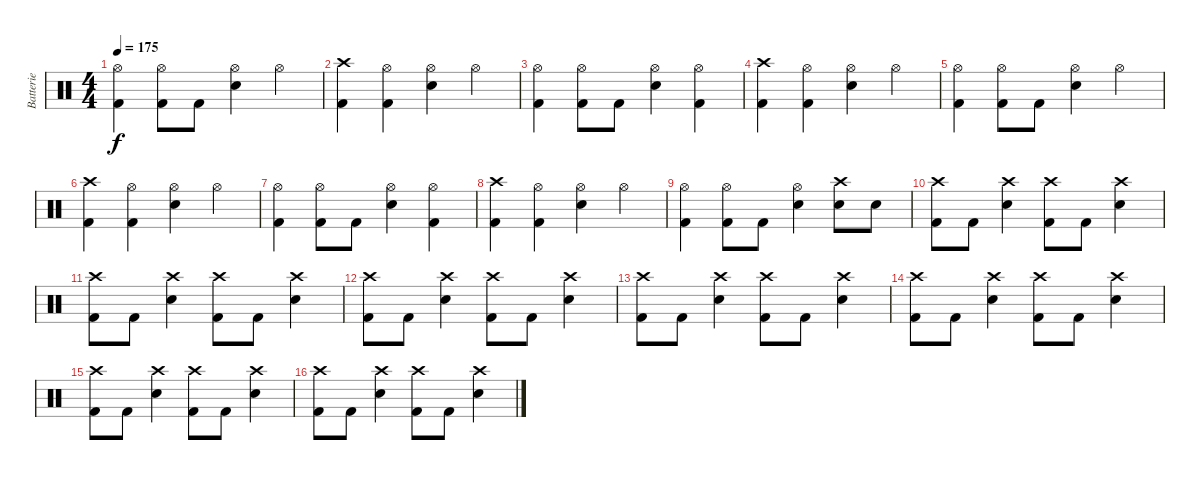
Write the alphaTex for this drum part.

\track ("Batterie" "Batterie") {instrument percussion}
\staff {score}
\articulation defaults
\ts (4 4)
\tempo 175
\clef neutral
\ks c
("Hi-Hat (open)" "Kick (hit) 2").4{dy f} ("Hi-Hat (open)" "Kick (hit) 2").8 "Kick (hit) 2".8 ("Hi-Hat (open)" "Electric Snare (hit)").4 "Hi-Hat (open)".4 |
("Crash high (hit)" "Kick (hit) 2").4 ("Hi-Hat (open)" "Kick (hit) 2").4 ("Hi-Hat (open)" "Electric Snare (hit)").4 "Hi-Hat (open)".4 |
("Hi-Hat (open)" "Kick (hit) 2").4 ("Hi-Hat (open)" "Kick (hit) 2").8 "Kick (hit) 2".8 ("Hi-Hat (open)" "Electric Snare (hit)").4 ("Hi-Hat (open)" "Kick (hit) 2").4 |
("Crash high (hit)" "Kick (hit) 2").4 ("Hi-Hat (open)" "Kick (hit) 2").4 ("Hi-Hat (open)" "Electric Snare (hit)").4 "Hi-Hat (open)".4 |
("Hi-Hat (open)" "Kick (hit) 2").4 ("Hi-Hat (open)" "Kick (hit) 2").8 "Kick (hit) 2".8 ("Hi-Hat (open)" "Electric Snare (hit)").4 "Hi-Hat (open)".4 |
("Crash high (hit)" "Kick (hit) 2").4 ("Hi-Hat (open)" "Kick (hit) 2").4 ("Hi-Hat (open)" "Electric Snare (hit)").4 "Hi-Hat (open)".4 |
("Hi-Hat (open)" "Kick (hit) 2").4 ("Hi-Hat (open)" "Kick (hit) 2").8 "Kick (hit) 2".8 ("Hi-Hat (open)" "Electric Snare (hit)").4 ("Hi-Hat (open)" "Kick (hit) 2").4 |
("Crash high (hit)" "Kick (hit) 2").4 ("Hi-Hat (open)" "Kick (hit) 2").4 ("Hi-Hat (open)" "Electric Snare (hit)").4 "Hi-Hat (open)".4 |
("Hi-Hat (open)" "Kick (hit) 2").4 ("Hi-Hat (open)" "Kick (hit) 2").8 "Kick (hit) 2".8 ("Hi-Hat (open)" "Electric Snare (hit)").4 ("Crash high (hit)" "Electric Snare (hit)").8 "Electric Snare (hit)".8 |
("Crash high (hit)" "Kick (hit) 2").8 "Kick (hit) 2".8 ("Crash high (hit)" "Electric Snare (hit)").4 ("Crash high (hit)" "Kick (hit) 2").8 "Kick (hit) 2".8 ("Crash high (hit)" "Electric Snare (hit)").4 |
("Crash high (hit)" "Kick (hit) 2").8 "Kick (hit) 2".8 ("Crash high (hit)" "Electric Snare (hit)").4 ("Crash high (hit)" "Kick (hit) 2").8 "Kick (hit) 2".8 ("Crash high (hit)" "Electric Snare (hit)").4 |
("Crash high (hit)" "Kick (hit) 2").8 "Kick (hit) 2".8 ("Crash high (hit)" "Electric Snare (hit)").4 ("Crash high (hit)" "Kick (hit) 2").8 "Kick (hit) 2".8 ("Crash high (hit)" "Electric Snare (hit)").4 |
("Crash high (hit)" "Kick (hit) 2").8 "Kick (hit) 2".8 ("Crash high (hit)" "Electric Snare (hit)").4 ("Crash high (hit)" "Kick (hit) 2").8 "Kick (hit) 2".8 ("Crash high (hit)" "Electric Snare (hit)").4 |
("Crash high (hit)" "Kick (hit) 2").8 "Kick (hit) 2".8 ("Crash high (hit)" "Electric Snare (hit)").4 ("Crash high (hit)" "Kick (hit) 2").8 "Kick (hit) 2".8 ("Crash high (hit)" "Electric Snare (hit)").4 |
("Crash high (hit)" "Kick (hit) 2").8 "Kick (hit) 2".8 ("Crash high (hit)" "Electric Snare (hit)").4 ("Crash high (hit)" "Kick (hit) 2").8 "Kick (hit) 2".8 ("Crash high (hit)" "Electric Snare (hit)").4 |
("Crash high (hit)" "Kick (hit) 2").8 "Kick (hit) 2".8 ("Crash high (hit)" "Electric Snare (hit)").4 ("Crash high (hit)" "Kick (hit) 2").8 "Kick (hit) 2".8 ("Crash high (hit)" "Electric Snare (hit)").4
